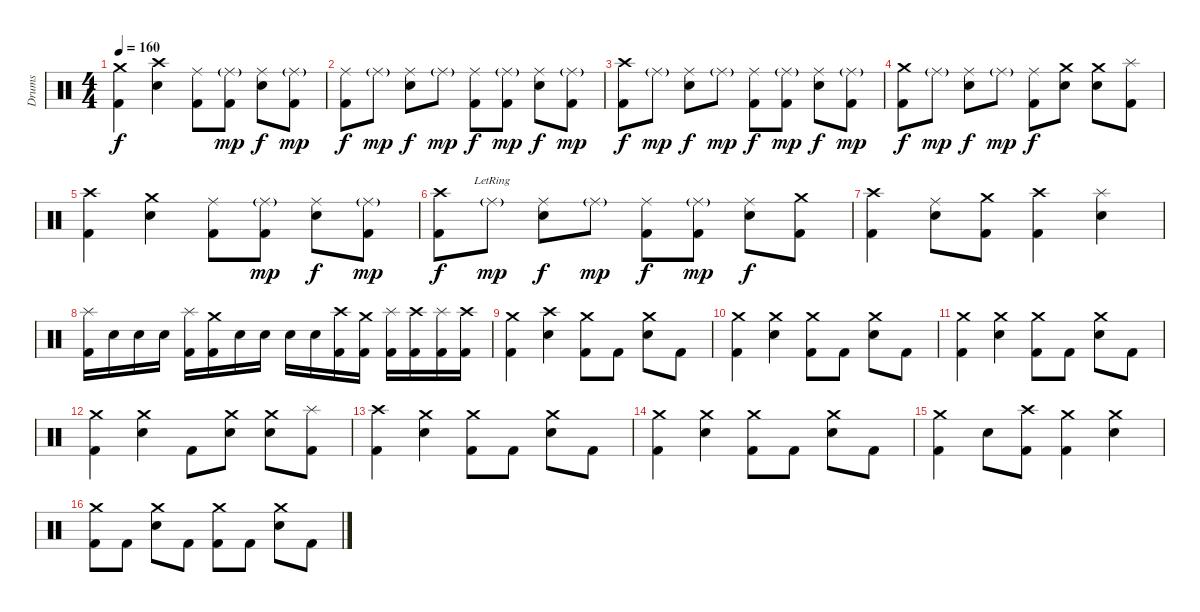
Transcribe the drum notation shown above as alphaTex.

\track ("Drums" "Drums") {instrument percussion}
\staff {score}
\articulation defaults
\ts (4 4)
\tempo 160
\clef neutral
\ks c
("Crash medium (hit)" "Kick (hit) 2").4{dy f} ("Crash high (hit)" "Snare (hit) 2").4 ("Ride (middle)" "Kick (hit) 2").8 ("Ride (middle)"{g} "Kick (hit) 2").8{dy mp} ("Ride (middle)" "Snare (hit) 2").8{dy f} ("Ride (middle)"{g} "Kick (hit) 2").8{dy mp} |
("Ride (middle)" "Kick (hit) 2").8{dy f} "Ride (middle)"{g}.8{dy mp} ("Ride (middle)" "Snare (hit) 2").8{dy f} "Ride (middle)"{g}.8{dy mp} ("Ride (middle)" "Kick (hit) 2").8{dy f} ("Ride (middle)"{g} "Kick (hit) 2").8{dy mp} ("Ride (middle)" "Snare (hit) 2").8{dy f} ("Ride (middle)"{g} "Kick (hit) 2").8{dy mp} |
("Crash high (hit)" "Kick (hit) 2").8{dy f} "Ride (middle)"{g}.8{dy mp} ("Ride (middle)" "Snare (hit) 2").8{dy f} "Ride (middle)"{g}.8{dy mp} ("Ride (middle)" "Kick (hit) 2").8{dy f} ("Ride (middle)"{g} "Kick (hit) 2").8{dy mp} ("Ride (middle)" "Snare (hit) 2").8{dy f} ("Ride (middle)"{g} "Kick (hit) 2").8{dy mp} |
("Crash medium (hit)" "Kick (hit) 2").8{dy f} "Ride (middle)"{g}.8{dy mp} ("Ride (middle)" "Snare (hit) 2").8{dy f} "Ride (middle)"{g}.8{dy mp} ("Ride (middle)" "Kick (hit) 2").8{dy f} ("Crash medium (hit)" "Snare (hit) 2").8 ("Crash medium (hit)" "Snare (hit) 2").8 ("Splash (hit)" "Kick (hit) 2").8 |
("Crash high (hit)" "Kick (hit) 2").4 ("Crash medium (hit)" "Snare (hit) 2").4 ("Ride (middle)" "Kick (hit) 2").8 ("Ride (middle)"{g} "Kick (hit) 2").8{dy mp} ("Ride (middle)" "Snare (hit) 2").8{dy f} ("Ride (middle)"{g} "Kick (hit) 2").8{dy mp} |
("Crash high (hit)" "Kick (hit) 2").8{dy f} "Ride (middle)"{g lr}.8{dy mp} ("Ride (middle)" "Snare (hit) 2").8{dy f} "Ride (middle)"{g}.8{dy mp} ("Ride (middle)" "Kick (hit) 2").8{dy f} ("Ride (middle)"{g} "Kick (hit) 2").8{dy mp} ("Ride (middle)" "Snare (hit) 2").8{dy f} ("Crash medium (hit)" "Kick (hit) 2").8 |
("Crash high (hit)" "Kick (hit) 2").4 ("Ride (middle)" "Snare (hit) 2").8 ("Crash medium (hit)" "Kick (hit) 2").8 ("Crash high (hit)" "Kick (hit) 2").4 ("Splash (hit)" "Snare (hit) 2").4 |
("Splash (hit)" "Kick (hit) 2").16 "Snare (hit) 2".16 "Snare (hit) 2".16 "Snare (hit) 2".16 ("Splash (hit)" "Kick (hit) 2").16 ("Crash medium (hit)" "Kick (hit) 2").16 "Snare (hit) 2".16 "Snare (hit) 2".16 "Snare (hit) 2".16 "Snare (hit) 2".16 ("Crash high (hit)" "Kick (hit) 2").16 ("Crash medium (hit)" "Kick (hit) 2").16 ("Splash (hit)" "Kick (hit) 2").16 ("Crash high (hit)" "Kick (hit) 2").16 ("Splash (hit)" "Kick (hit) 2").16 ("Crash high (hit)" "Kick (hit) 2").16 |
("Crash medium (hit)" "Kick (hit) 2").4 ("Crash high (hit)" "Snare (hit) 2").4 ("Crash medium (hit)" "Kick (hit) 2").8 "Kick (hit) 2".8 ("Crash medium (hit)" "Snare (hit) 2").8 "Kick (hit) 2".8 |
("Crash medium (hit)" "Kick (hit) 2").4 ("Crash medium (hit)" "Snare (hit) 2").4 ("Crash medium (hit)" "Kick (hit) 2").8 "Kick (hit) 2".8 ("Crash medium (hit)" "Snare (hit) 2").8 "Kick (hit) 2".8 |
("Crash medium (hit)" "Kick (hit) 2").4 ("Crash medium (hit)" "Snare (hit) 2").4 ("Crash medium (hit)" "Kick (hit) 2").8 "Kick (hit) 2".8 ("Crash medium (hit)" "Snare (hit) 2").8 "Kick (hit) 2".8 |
("Crash medium (hit)" "Kick (hit) 2").4 ("Crash medium (hit)" "Snare (hit) 2").4 "Kick (hit) 2".8 ("Crash medium (hit)" "Snare (hit) 2").8 ("Crash medium (hit)" "Snare (hit) 2").8 ("Splash (hit)" "Kick (hit) 2").8 |
("Crash high (hit)" "Kick (hit) 2").4 ("Crash medium (hit)" "Snare (hit) 2").4 ("Crash medium (hit)" "Kick (hit) 2").8 "Kick (hit) 2".8 ("Crash medium (hit)" "Snare (hit) 2").8 "Kick (hit) 2".8 |
("Crash medium (hit)" "Kick (hit) 2").4 ("Crash medium (hit)" "Snare (hit) 2").4 ("Crash medium (hit)" "Kick (hit) 2").8 "Kick (hit) 2".8 ("Crash medium (hit)" "Snare (hit) 2").8 "Kick (hit) 2".8 |
("Crash medium (hit)" "Kick (hit) 2").4 "Snare (hit) 2".8 ("Crash high (hit)" "Kick (hit) 2").8 ("Crash medium (hit)" "Kick (hit) 2").4 ("Crash medium (hit)" "Snare (hit) 2").4 |
("Crash medium (hit)" "Kick (hit) 2").8 "Kick (hit) 2".8 ("Crash medium (hit)" "Snare (hit) 2").8 "Kick (hit) 2".8 ("Crash medium (hit)" "Kick (hit) 2").8 "Kick (hit) 2".8 ("Crash medium (hit)" "Snare (hit) 2").8 "Kick (hit) 2".8
